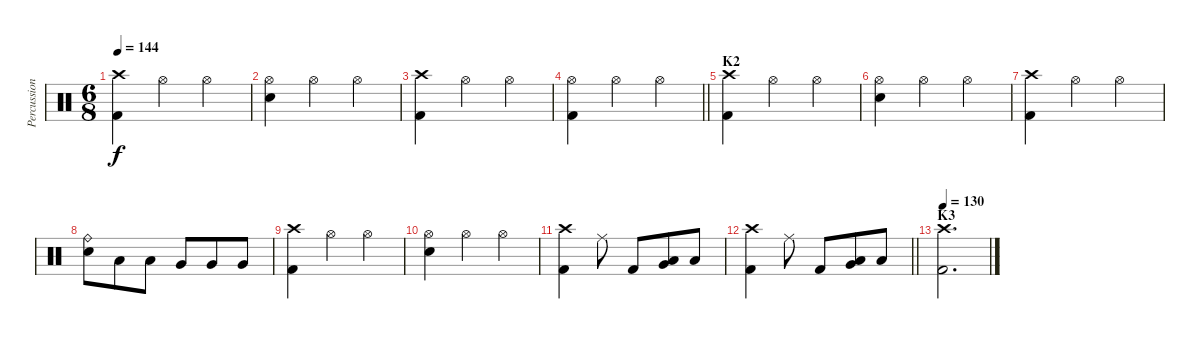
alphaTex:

\track ("Percussion" "Percussion") {instrument percussion}
\staff {score}
\articulation defaults
\ts (6 8)
\tempo 144
\clef neutral
\ks c
("Crash high (hit)" "Kick (hit) 2").4{dy f} "Hi-Hat (open)".4 "Hi-Hat (open)".4 |
("Hi-Hat (open)" "Electric Snare (hit)").4 "Hi-Hat (open)".4 "Hi-Hat (open)".4 |
("Crash high (hit)" "Kick (hit) 2").4 "Hi-Hat (open)".4 "Hi-Hat (open)".4 |
\barLineRight lightlight
("Hi-Hat (open)" "Kick (hit) 2").4 "Hi-Hat (open)".4 "Hi-Hat (open)".4 |
\section ("" "K2")
("Crash high (hit)" "Kick (hit) 2").4 "Hi-Hat (open)".4 "Hi-Hat (open)".4 |
("Hi-Hat (open)" "Electric Snare (hit)").4 "Hi-Hat (open)".4 "Hi-Hat (open)".4 |
("Crash high (hit)" "Kick (hit) 2").4 "Hi-Hat (open)".4 "Hi-Hat (open)".4 |
("Ride (bell)" "Electric Snare (hit)").8 "Low Tom (hit)".8 "Low Tom (hit)".8 "Very Low Tom (hit)".8 "Very Low Tom (hit)".8 "Very Low Tom (hit)".8 |
("Crash high (hit)" "Kick (hit) 2").4 "Hi-Hat (open)".4 "Hi-Hat (open)".4 |
("Hi-Hat (open)" "Electric Snare (hit)").4 "Hi-Hat (open)".4 "Hi-Hat (open)".4 |
("Crash high (hit)" "Kick (hit) 2").4 "Ride (middle)".8 "Kick (hit) 2".8 ("Very Low Tom (hit)" "Low Tom (hit)").8{bd 60} "Low Floor Tom (hit)".8 |
\barLineRight lightlight
("Crash high (hit)" "Kick (hit) 2").4 "Ride (middle)".8 "Kick (hit) 2".8 ("Very Low Tom (hit)" "Low Tom (hit)").8{bd 60} "Low Floor Tom (hit)".8 |
\section ("" "K3")
\tempo 130
("Crash high (hit)" "Kick (hit) 2").2{d}
